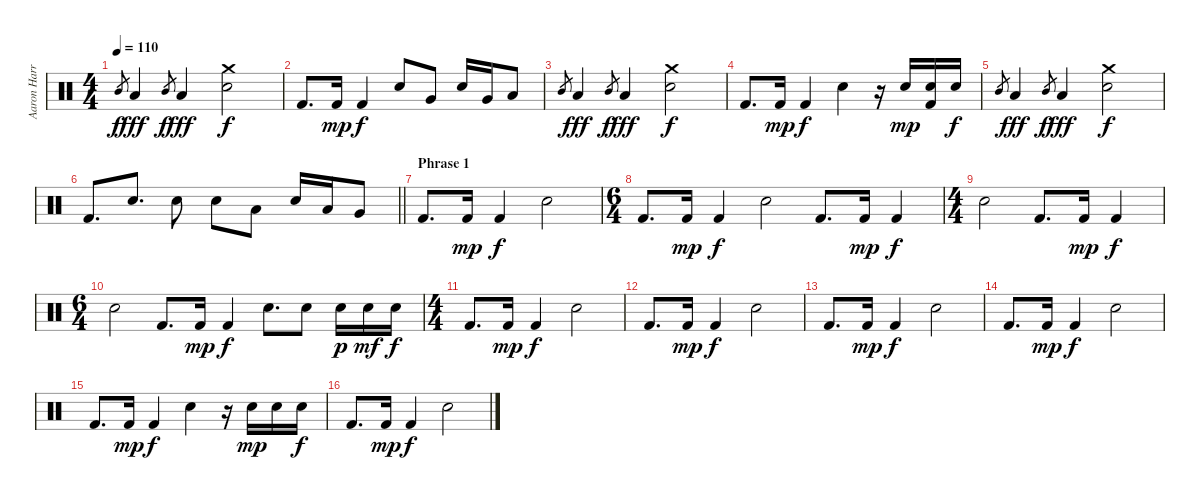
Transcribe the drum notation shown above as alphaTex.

\track ("Aaron Harris" "Aaron Harr") {instrument percussion}
\staff {score}
\articulation defaults
\ts (4 4)
\tempo 110
\clef neutral
\ks c "Mid Tom (hit)".8{gr dy f} "Low Tom (hit)".4{dy fff} "Mid Tom (hit)".8{gr dy f} "Low Tom (hit)".4{dy fff}
("Crash medium (hit)" "Electric Snare (hit)").2{dy f} |
"Kick (hit) 2".8{d} "Kick (hit) 2".16{dy mp} "Kick (hit) 2".4{dy f} "Electric Snare (hit)".8 "Very Low Tom (hit)".8 "Electric Snare (hit)".16 "Very Low Tom (hit)".16 "Low Floor Tom (hit)".8 |
"Mid Tom (hit)".8{gr} "Low Tom (hit)".4{dy fff} "Mid Tom (hit)".8{gr dy f} "Low Tom (hit)".4{dy fff} ("Crash medium (hit)" "Electric Snare (hit)").2{dy f} |
"Kick (hit) 2".8{d} "Kick (hit) 2".16{dy mp} "Kick (hit) 2".4{dy f} "Electric Snare (hit)".4 r.16 "Electric Snare (hit)".16{dy mp} ("Electric Snare (hit)" "Kick (hit) 2").16 "Electric Snare (hit)".16{dy f} |
"Mid Tom (hit)".8{gr} "Low Tom (hit)".4{dy fff} "Mid Tom (hit)".8{gr dy f} "Low Tom (hit)".4{dy fff} ("Crash medium (hit)" "Electric Snare (hit)").2{dy f} |
\barLineRight lightlight "Kick (hit) 2".8{d} "Electric Snare (hit)".8{d} "Electric Snare (hit)".8 "Electric Snare (hit)".8 "Low Tom (hit)".8 "Electric Snare (hit)".16 "Low Tom (hit)".16 "Very Low Tom (hit)".8
|
\section ("" "Phrase 1")
"Kick (hit) 2".8{d} "Kick (hit) 2".16{dy mp} "Kick (hit) 2".4{dy f} "Electric Snare (hit)".2 |
\ts (6 4)
"Kick (hit) 2".8{d} "Kick (hit) 2".16{dy mp} "Kick (hit) 2".4{dy f} "Electric Snare (hit)".2 "Kick (hit) 2".8{d} "Kick (hit) 2".16{dy mp} "Kick (hit) 2".4{dy f} |
\ts (4 4)
"Electric Snare (hit)".2 "Kick (hit) 2".8{d} "Kick (hit) 2".16{dy mp} "Kick (hit) 2".4{dy f} |
\ts (6 4)
"Electric Snare (hit)".2 "Kick (hit) 2".8{d} "Kick (hit) 2".16{dy mp} "Kick (hit) 2".4{dy f} "Electric Snare (hit)".8{d} "Electric Snare (hit)".8 "Electric Snare (hit)".16{dy p} "Electric Snare (hit)".16{dy mf} "Electric Snare (hit)".16{dy f} |
\ts (4 4)
"Kick (hit) 2".8{d} "Kick (hit) 2".16{dy mp} "Kick (hit) 2".4{dy f} "Electric Snare (hit)".2 |
"Kick (hit) 2".8{d} "Kick (hit) 2".16{dy mp} "Kick (hit) 2".4{dy f} "Electric Snare (hit)".2 |
"Kick (hit) 2".8{d} "Kick (hit) 2".16{dy mp} "Kick (hit) 2".4{dy f} "Electric Snare (hit)".2 |
"Kick (hit) 2".8{d} "Kick (hit) 2".16{dy mp} "Kick (hit) 2".4{dy f} "Electric Snare (hit)".2 |
"Kick (hit) 2".8{d} "Kick (hit) 2".16{dy mp} "Kick (hit) 2".4{dy f} "Electric Snare (hit)".4 r.16 "Electric Snare (hit)".16{dy mp} "Electric Snare (hit)".16 "Electric Snare (hit)".16{dy f} |
"Kick (hit) 2".8{d} "Kick (hit) 2".16{dy mp} "Kick (hit) 2".4{dy f} "Electric Snare (hit)".2
